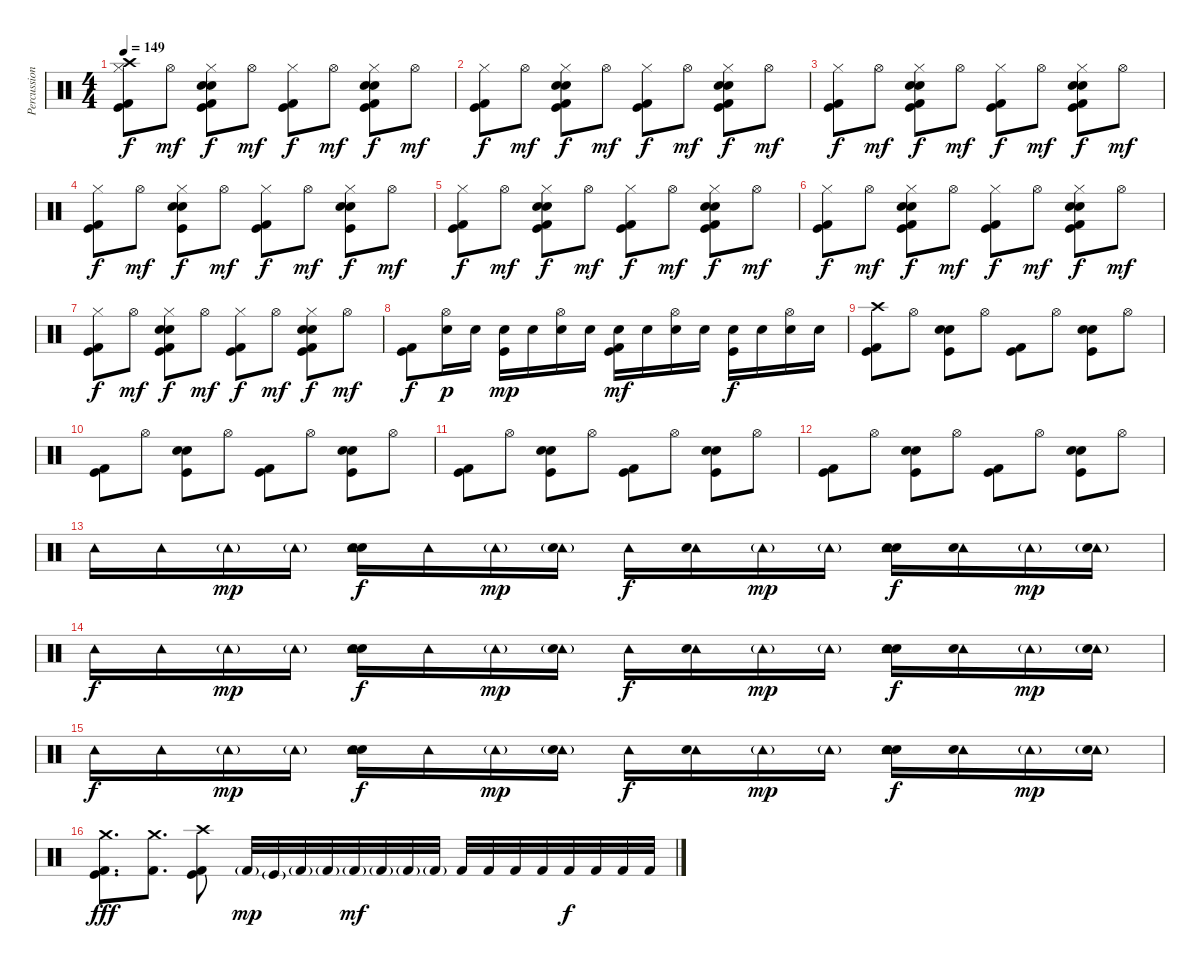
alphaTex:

\track ("Percussion" "Percussion") {instrument percussion}
\staff {score}
\articulation defaults
\ts (4 4)
\tempo 149
\clef neutral
\ks c
("Crash high (hit)" "Hi-Hat (closed)" "Kick (hit)" "Kick (hit) 2").8{dy f} "Hi-Hat (open)".8{dy mf} ("Hand Clap (hit)" "Electric Snare (hit)" "Hi-Hat (closed)" "Kick (hit)" "Kick (hit) 2").8{dy f} "Hi-Hat (open)".8{dy mf} ("Hi-Hat (closed)" "Kick (hit)" "Kick (hit) 2").8{dy f} "Hi-Hat (open)".8{dy mf} ("Hand Clap (hit)" "Electric Snare (hit)" "Hi-Hat (closed)" "Kick (hit)" "Kick (hit) 2").8{dy f} "Hi-Hat (open)".8{dy mf} |
("Hi-Hat (closed)" "Kick (hit)" "Kick (hit) 2").8{dy f} "Hi-Hat (open)".8{dy mf} ("Hand Clap (hit)" "Electric Snare (hit)" "Hi-Hat (closed)" "Kick (hit)" "Kick (hit) 2").8{dy f} "Hi-Hat (open)".8{dy mf} ("Hi-Hat (closed)" "Kick (hit)" "Kick (hit) 2").8{dy f} "Hi-Hat (open)".8{dy mf} ("Hand Clap (hit)" "Electric Snare (hit)" "Hi-Hat (closed)" "Kick (hit)" "Kick (hit) 2").8{dy f} "Hi-Hat (open)".8{dy mf} |
("Hi-Hat (closed)" "Kick (hit)" "Kick (hit) 2").8{dy f} "Hi-Hat (open)".8{dy mf} ("Hand Clap (hit)" "Electric Snare (hit)" "Hi-Hat (closed)" "Kick (hit)" "Kick (hit) 2").8{dy f} "Hi-Hat (open)".8{dy mf} ("Hi-Hat (closed)" "Kick (hit)" "Kick (hit) 2").8{dy f} "Hi-Hat (open)".8{dy mf} ("Hand Clap (hit)" "Electric Snare (hit)" "Hi-Hat (closed)" "Kick (hit)" "Kick (hit) 2").8{dy f} "Hi-Hat (open)".8{dy mf} |
("Hi-Hat (closed)" "Kick (hit)" "Kick (hit) 2").8{dy f} "Hi-Hat (open)".8{dy mf} ("Hand Clap (hit)" "Electric Snare (hit)" "Hi-Hat (closed)" "Kick (hit)").8{dy f} "Hi-Hat (open)".8{dy mf} ("Hi-Hat (closed)" "Kick (hit)" "Kick (hit) 2").8{dy f} "Hi-Hat (open)".8{dy mf} ("Hand Clap (hit)" "Electric Snare (hit)" "Hi-Hat (closed)" "Kick (hit)").8{dy f} "Hi-Hat (open)".8{dy mf} |
("Hi-Hat (closed)" "Kick (hit)" "Kick (hit) 2").8{dy f} "Hi-Hat (open)".8{dy mf} ("Hand Clap (hit)" "Electric Snare (hit)" "Hi-Hat (closed)" "Kick (hit)" "Kick (hit) 2").8{dy f} "Hi-Hat (open)".8{dy mf} ("Hi-Hat (closed)" "Kick (hit)" "Kick (hit) 2").8{dy f} "Hi-Hat (open)".8{dy mf} ("Hand Clap (hit)" "Electric Snare (hit)" "Hi-Hat (closed)" "Kick (hit)" "Kick (hit) 2").8{dy f} "Hi-Hat (open)".8{dy mf} |
("Hi-Hat (closed)" "Kick (hit)" "Kick (hit) 2").8{dy f} "Hi-Hat (open)".8{dy mf} ("Hand Clap (hit)" "Electric Snare (hit)" "Hi-Hat (closed)" "Kick (hit)" "Kick (hit) 2").8{dy f} "Hi-Hat (open)".8{dy mf} ("Hi-Hat (closed)" "Kick (hit)" "Kick (hit) 2").8{dy f} "Hi-Hat (open)".8{dy mf} ("Hand Clap (hit)" "Electric Snare (hit)" "Hi-Hat (closed)" "Kick (hit)" "Kick (hit) 2").8{dy f} "Hi-Hat (open)".8{dy mf} |
("Hi-Hat (closed)" "Kick (hit)" "Kick (hit) 2").8{dy f} "Hi-Hat (open)".8{dy mf} ("Hand Clap (hit)" "Electric Snare (hit)" "Hi-Hat (closed)" "Kick (hit)" "Kick (hit) 2").8{dy f} "Hi-Hat (open)".8{dy mf} ("Hi-Hat (closed)" "Kick (hit)" "Kick (hit) 2").8{dy f} "Hi-Hat (open)".8{dy mf} ("Hand Clap (hit)" "Electric Snare (hit)" "Hi-Hat (closed)" "Kick (hit)" "Kick (hit) 2").8{dy f} "Hi-Hat (open)".8{dy mf} |
("Kick (hit)" "Kick (hit) 2").8{dy f} ("Hi-Hat (open)" "Electric Snare (hit)").16{dy p} "Electric Snare (hit)".16 ("Electric Snare (hit)" "Kick (hit)").16{dy mp} "Electric Snare (hit)".16 ("Hi-Hat (open)" "Electric Snare (hit)").16 "Electric Snare (hit)".16 ("Electric Snare (hit)" "Kick (hit)" "Kick (hit) 2").16{dy mf} "Electric Snare (hit)".16 ("Hi-Hat (open)" "Electric Snare (hit)").16 "Electric Snare (hit)".16 ("Electric Snare (hit)" "Kick (hit)").16{dy f} "Electric Snare (hit)".16 ("Hi-Hat (open)" "Electric Snare (hit)").16 "Electric Snare (hit)".16 |
("Crash high (hit)" "Kick (hit)" "Kick (hit) 2").8 "Hi-Hat (open)".8 ("Hand Clap (hit)" "Electric Snare (hit)" "Kick (hit)").8 "Hi-Hat (open)".8 ("Kick (hit)" "Kick (hit) 2").8 "Hi-Hat (open)".8 ("Hand Clap (hit)" "Electric Snare (hit)" "Kick (hit)").8 "Hi-Hat (open)".8 |
("Kick (hit)" "Kick (hit) 2").8 "Hi-Hat (open)".8 ("Hand Clap (hit)" "Electric Snare (hit)" "Kick (hit)").8 "Hi-Hat (open)".8 ("Kick (hit)" "Kick (hit) 2").8 "Hi-Hat (open)".8 ("Hand Clap (hit)" "Electric Snare (hit)" "Kick (hit)").8 "Hi-Hat (open)".8 |
("Kick (hit)" "Kick (hit) 2").8 "Hi-Hat (open)".8 ("Hand Clap (hit)" "Electric Snare (hit)" "Kick (hit)").8 "Hi-Hat (open)".8 ("Kick (hit)" "Kick (hit) 2").8 "Hi-Hat (open)".8 ("Hand Clap (hit)" "Electric Snare (hit)" "Kick (hit)").8 "Hi-Hat (open)".8 |
("Kick (hit)" "Kick (hit) 2").8 "Hi-Hat (open)".8 ("Hand Clap (hit)" "Electric Snare (hit)" "Kick (hit)").8 "Hi-Hat (open)".8 ("Kick (hit)" "Kick (hit) 2").8 "Hi-Hat (open)".8 ("Hand Clap (hit)" "Electric Snare (hit)" "Kick (hit)").8 "Hi-Hat (open)".8 |
"Tambourine (hit)".16 "Tambourine (hit)".16 "Tambourine (hit)"{g}.16{dy mp} "Tambourine (hit)"{g}.16 ("Hand Clap (hit)" "Tambourine (hit)" "Electric Snare (hit)").16{dy f} "Tambourine (hit)".16 "Tambourine (hit)"{g}.16{dy mp} ("Tambourine (hit)"{g} "Electric Snare (hit)").16 "Tambourine (hit)".16{dy f} ("Tambourine (hit)" "Electric Snare (hit)").16 "Tambourine (hit)"{g}.16{dy mp} "Tambourine (hit)"{g}.16 ("Hand Clap (hit)" "Tambourine (hit)" "Electric Snare (hit)").16{dy f} ("Tambourine (hit)" "Electric Snare (hit)").16 "Tambourine (hit)"{g}.16{dy mp} ("Tambourine (hit)"{g} "Electric Snare (hit)").16 |
"Tambourine (hit)".16{dy f} "Tambourine (hit)".16 "Tambourine (hit)"{g}.16{dy mp} "Tambourine (hit)"{g}.16 ("Hand Clap (hit)" "Tambourine (hit)" "Electric Snare (hit)").16{dy f} "Tambourine (hit)".16 "Tambourine (hit)"{g}.16{dy mp} ("Tambourine (hit)"{g} "Electric Snare (hit)").16 "Tambourine (hit)".16{dy f} ("Tambourine (hit)" "Electric Snare (hit)").16 "Tambourine (hit)"{g}.16{dy mp} "Tambourine (hit)"{g}.16 ("Hand Clap (hit)" "Tambourine (hit)" "Electric Snare (hit)").16{dy f} ("Tambourine (hit)" "Electric Snare (hit)").16 "Tambourine (hit)"{g}.16{dy mp} ("Tambourine (hit)"{g} "Electric Snare (hit)").16 |
"Tambourine (hit)".16{dy f} "Tambourine (hit)".16 "Tambourine (hit)"{g}.16{dy mp} "Tambourine (hit)"{g}.16 ("Hand Clap (hit)" "Tambourine (hit)" "Electric Snare (hit)").16{dy f} "Tambourine (hit)".16 "Tambourine (hit)"{g}.16{dy mp} ("Tambourine (hit)"{g} "Electric Snare (hit)").16 "Tambourine (hit)".16{dy f} ("Tambourine (hit)" "Electric Snare (hit)").16 "Tambourine (hit)"{g}.16{dy mp} "Tambourine (hit)"{g}.16 ("Hand Clap (hit)" "Tambourine (hit)" "Electric Snare (hit)").16{dy f} ("Tambourine (hit)" "Electric Snare (hit)").16 "Tambourine (hit)"{g}.16{dy mp} ("Tambourine (hit)"{g} "Electric Snare (hit)").16 |
("Crash medium (hit)" "Kick (hit)" "Kick (hit) 2").8{d dy fff} ("Crash medium (hit)" "Kick (hit) 2").8{d} ("Crash high (hit)" "Kick (hit)" "Kick (hit) 2").8 "Kick (hit) 2"{g}.32{dy mp} "Kick (hit)"{g}.32 "Kick (hit) 2"{g}.32 "Kick (hit) 2"{g}.32 "Kick (hit) 2"{g}.32{dy mf} "Kick (hit) 2"{g}.32 "Kick (hit) 2"{g}.32 "Kick (hit) 2"{g}.32 "Kick (hit) 2".32 "Kick (hit) 2".32 "Kick (hit) 2".32 "Kick (hit) 2".32 "Kick (hit) 2".32{dy f} "Kick (hit) 2".32 "Kick (hit) 2".32 "Kick (hit) 2".32
